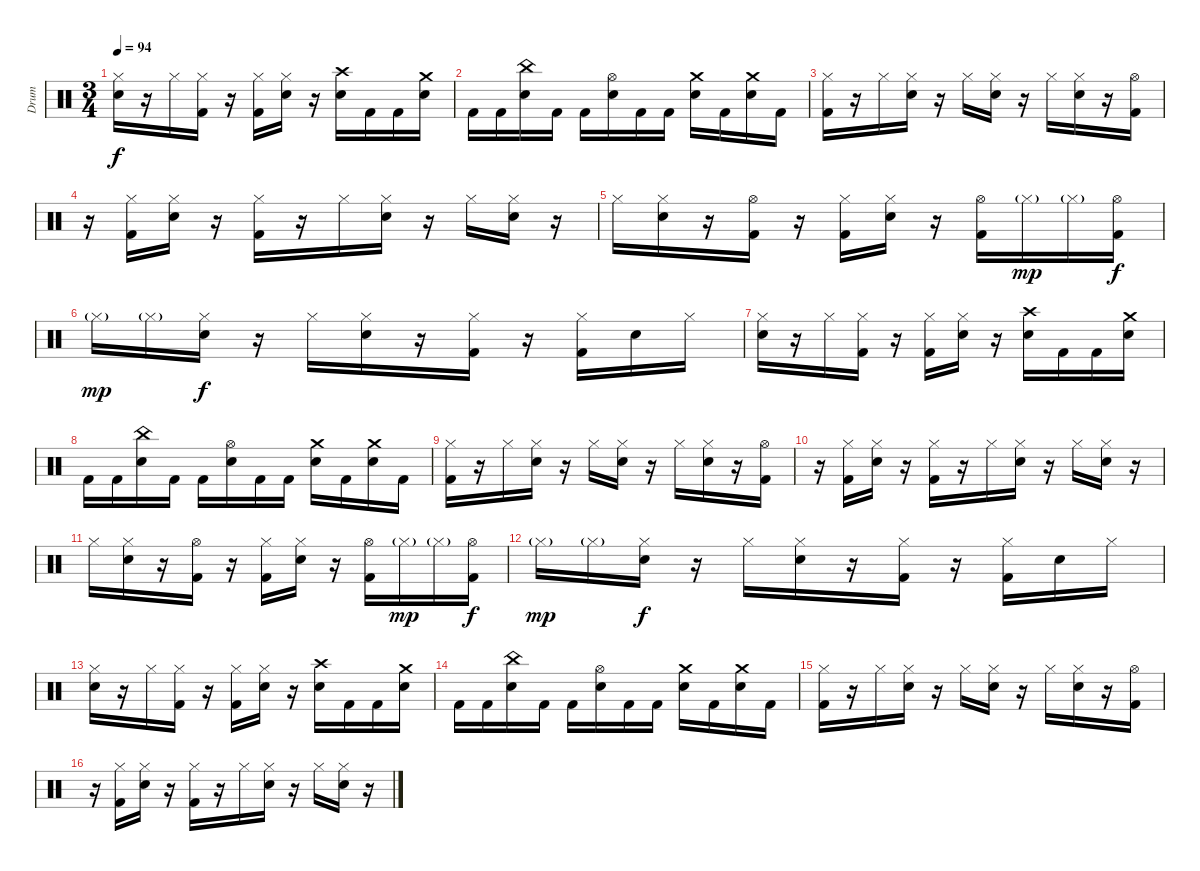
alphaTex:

\track ("Drum" "Drum") {instrument percussion}
\staff {score}
\articulation defaults
\ts (3 4)
\tempo 94
\clef neutral
\ks c
("Hi-Hat (closed)" "Electric Snare (hit)").16{dy f} r.16 "Hi-Hat (closed)".16 ("Hi-Hat (closed)" "Kick (hit) 2").16 r.16 ("Hi-Hat (closed)" "Kick (hit) 2").16 ("Hi-Hat (closed)" "Electric Snare (hit)").16 r.16 ("Crash high (hit)" "Electric Snare (hit)").16 "Kick (hit) 2".16 "Kick (hit) 2".16 ("Crash medium (hit)" "Electric Snare (hit)").16 |
"Kick (hit) 2".16 "Kick (hit) 2".16 ("China (hit)" "Electric Snare (hit)").16 "Kick (hit) 2".16 "Kick (hit) 2".16 ("Hi-Hat (open)" "Electric Snare (hit)").16 "Kick (hit) 2".16 "Kick (hit) 2".16 ("Crash medium (hit)" "Electric Snare (hit)").16 "Kick (hit) 2".16 ("Crash medium (hit)" "Electric Snare (hit)").16 "Kick (hit) 2".16 |
("Hi-Hat (closed)" "Kick (hit) 2").16 r.16 "Hi-Hat (closed)".16 ("Hi-Hat (closed)" "Electric Snare (hit)").16 r.16 "Hi-Hat (closed)".16 ("Hi-Hat (closed)" "Electric Snare (hit)").16 r.16 "Hi-Hat (closed)".16 ("Hi-Hat (closed)" "Electric Snare (hit)").16 r.16 ("Hi-Hat (open)" "Kick (hit) 2").16 |
r.16 ("Hi-Hat (closed)" "Kick (hit) 2").16 ("Hi-Hat (closed)" "Electric Snare (hit)").16 r.16 ("Hi-Hat (closed)" "Kick (hit) 2").16 r.16 "Hi-Hat (closed)".16 ("Hi-Hat (closed)" "Electric Snare (hit)").16 r.16 "Hi-Hat (closed)".16 ("Hi-Hat (closed)" "Electric Snare (hit)").16 r.16 |
"Hi-Hat (closed)".16 ("Hi-Hat (closed)" "Electric Snare (hit)").16 r.16 ("Hi-Hat (open)" "Kick (hit) 2").16 r.16 ("Hi-Hat (closed)" "Kick (hit) 2").16 ("Hi-Hat (closed)" "Electric Snare (hit)").16 r.16 ("Hi-Hat (open)" "Kick (hit) 2").16 "Hi-Hat (closed)"{g}.16{dy mp} "Hi-Hat (closed)"{g}.16 ("Hi-Hat (open)" "Kick (hit) 2").16{dy f} |
"Hi-Hat (closed)"{g}.16{dy mp} "Hi-Hat (closed)"{g}.16 ("Hi-Hat (closed)" "Electric Snare (hit)").16{dy f} r.16 "Hi-Hat (closed)".16 ("Hi-Hat (closed)" "Electric Snare (hit)").16 r.16 ("Hi-Hat (closed)" "Kick (hit) 2").16 r.16 ("Hi-Hat (closed)" "Kick (hit) 2").16 "Electric Snare (hit)".16 "Hi-Hat (closed)".16 |
("Hi-Hat (closed)" "Electric Snare (hit)").16 r.16 "Hi-Hat (closed)".16 ("Hi-Hat (closed)" "Kick (hit) 2").16 r.16 ("Hi-Hat (closed)" "Kick (hit) 2").16 ("Hi-Hat (closed)" "Electric Snare (hit)").16 r.16 ("Crash high (hit)" "Electric Snare (hit)").16 "Kick (hit) 2".16 "Kick (hit) 2".16 ("Crash medium (hit)" "Electric Snare (hit)").16 |
"Kick (hit) 2".16 "Kick (hit) 2".16 ("China (hit)" "Electric Snare (hit)").16 "Kick (hit) 2".16 "Kick (hit) 2".16 ("Hi-Hat (open)" "Electric Snare (hit)").16 "Kick (hit) 2".16 "Kick (hit) 2".16 ("Crash medium (hit)" "Electric Snare (hit)").16 "Kick (hit) 2".16 ("Crash medium (hit)" "Electric Snare (hit)").16 "Kick (hit) 2".16 |
("Hi-Hat (closed)" "Kick (hit) 2").16 r.16 "Hi-Hat (closed)".16 ("Hi-Hat (closed)" "Electric Snare (hit)").16 r.16 "Hi-Hat (closed)".16 ("Hi-Hat (closed)" "Electric Snare (hit)").16 r.16 "Hi-Hat (closed)".16 ("Hi-Hat (closed)" "Electric Snare (hit)").16 r.16 ("Hi-Hat (open)" "Kick (hit) 2").16 |
r.16 ("Hi-Hat (closed)" "Kick (hit) 2").16 ("Hi-Hat (closed)" "Electric Snare (hit)").16 r.16 ("Hi-Hat (closed)" "Kick (hit) 2").16 r.16 "Hi-Hat (closed)".16 ("Hi-Hat (closed)" "Electric Snare (hit)").16 r.16 "Hi-Hat (closed)".16 ("Hi-Hat (closed)" "Electric Snare (hit)").16 r.16 |
"Hi-Hat (closed)".16 ("Hi-Hat (closed)" "Electric Snare (hit)").16 r.16 ("Hi-Hat (open)" "Kick (hit) 2").16 r.16 ("Hi-Hat (closed)" "Kick (hit) 2").16 ("Hi-Hat (closed)" "Electric Snare (hit)").16 r.16 ("Hi-Hat (open)" "Kick (hit) 2").16 "Hi-Hat (closed)"{g}.16{dy mp} "Hi-Hat (closed)"{g}.16 ("Hi-Hat (open)" "Kick (hit) 2").16{dy f} |
"Hi-Hat (closed)"{g}.16{dy mp} "Hi-Hat (closed)"{g}.16 ("Hi-Hat (closed)" "Electric Snare (hit)").16{dy f} r.16 "Hi-Hat (closed)".16 ("Hi-Hat (closed)" "Electric Snare (hit)").16 r.16 ("Hi-Hat (closed)" "Kick (hit) 2").16 r.16 ("Hi-Hat (closed)" "Kick (hit) 2").16 "Electric Snare (hit)".16 "Hi-Hat (closed)".16 |
("Hi-Hat (closed)" "Electric Snare (hit)").16 r.16 "Hi-Hat (closed)".16 ("Hi-Hat (closed)" "Kick (hit) 2").16 r.16 ("Hi-Hat (closed)" "Kick (hit) 2").16 ("Hi-Hat (closed)" "Electric Snare (hit)").16 r.16 ("Crash high (hit)" "Electric Snare (hit)").16 "Kick (hit) 2".16 "Kick (hit) 2".16 ("Crash medium (hit)" "Electric Snare (hit)").16 |
"Kick (hit) 2".16 "Kick (hit) 2".16 ("China (hit)" "Electric Snare (hit)").16 "Kick (hit) 2".16 "Kick (hit) 2".16 ("Hi-Hat (open)" "Electric Snare (hit)").16 "Kick (hit) 2".16 "Kick (hit) 2".16 ("Crash medium (hit)" "Electric Snare (hit)").16 "Kick (hit) 2".16 ("Crash medium (hit)" "Electric Snare (hit)").16 "Kick (hit) 2".16 |
("Hi-Hat (closed)" "Kick (hit) 2").16 r.16 "Hi-Hat (closed)".16 ("Hi-Hat (closed)" "Electric Snare (hit)").16 r.16 "Hi-Hat (closed)".16 ("Hi-Hat (closed)" "Electric Snare (hit)").16 r.16 "Hi-Hat (closed)".16 ("Hi-Hat (closed)" "Electric Snare (hit)").16 r.16 ("Hi-Hat (open)" "Kick (hit) 2").16 |
r.16 ("Hi-Hat (closed)" "Kick (hit) 2").16 ("Hi-Hat (closed)" "Electric Snare (hit)").16 r.16 ("Hi-Hat (closed)" "Kick (hit) 2").16 r.16 "Hi-Hat (closed)".16 ("Hi-Hat (closed)" "Electric Snare (hit)").16 r.16 "Hi-Hat (closed)".16 ("Hi-Hat (closed)" "Electric Snare (hit)").16 r.16
